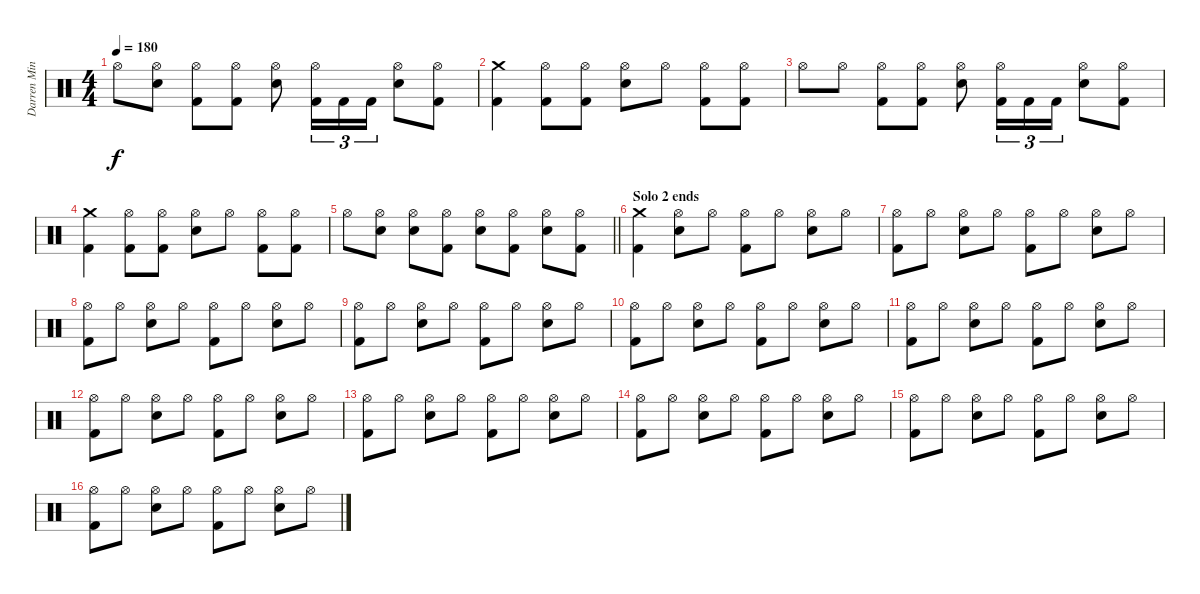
\track ("Darren Minter" "Darren Min") {instrument percussion}
\staff {score}
\articulation defaults
\ts (4 4)
\tempo 180
\clef neutral
\ks c "Hi-Hat (open)".8{dy f}
("Hi-Hat (open)" "Electric Snare (hit)").8 ("Hi-Hat (open)" "Kick (hit) 2").8 ("Hi-Hat (open)" "Kick (hit) 2").8 ("Hi-Hat (open)" "Electric Snare (hit)").8 ("Hi-Hat (open)" "Kick (hit) 2").16{tu (3 2)} "Kick (hit) 2".16{tu (3 2)} "Kick (hit) 2".16{tu (3 2)} ("Hi-Hat (open)" "Electric Snare (hit)").8 ("Hi-Hat (open)" "Kick (hit) 2").8 |
("Crash medium (hit)" "Kick (hit) 2").4 ("Hi-Hat (open)" "Kick (hit) 2").8 ("Hi-Hat (open)" "Kick (hit) 2").8 ("Hi-Hat (open)" "Electric Snare (hit)").8 "Hi-Hat (open)".8 ("Hi-Hat (open)" "Kick (hit) 2").8 ("Hi-Hat (open)" "Kick (hit) 2").8 |
"Hi-Hat (open)".8 "Hi-Hat (open)".8 ("Hi-Hat (open)" "Kick (hit) 2").8 ("Hi-Hat (open)" "Kick (hit) 2").8 ("Hi-Hat (open)" "Electric Snare (hit)").8 ("Hi-Hat (open)" "Kick (hit) 2").16{tu (3 2)} "Kick (hit) 2".16{tu (3 2)} "Kick (hit) 2".16{tu (3 2)} ("Hi-Hat (open)" "Electric Snare (hit)").8 ("Hi-Hat (open)" "Kick (hit) 2").8 |
("Crash medium (hit)" "Kick (hit) 2").4 ("Hi-Hat (open)" "Kick (hit) 2").8 ("Hi-Hat (open)" "Kick (hit) 2").8 ("Hi-Hat (open)" "Electric Snare (hit)").8 "Hi-Hat (open)".8 ("Hi-Hat (open)" "Kick (hit) 2").8 ("Hi-Hat (open)" "Kick (hit) 2").8 |
\barLineRight lightlight "Hi-Hat (open)".8
("Hi-Hat (open)" "Electric Snare (hit)").8 ("Hi-Hat (open)" "Electric Snare (hit)").8 ("Hi-Hat (open)" "Kick (hit) 2").8 ("Hi-Hat (open)" "Electric Snare (hit)").8 ("Hi-Hat (open)" "Kick (hit) 2").8 ("Hi-Hat (open)" "Electric Snare (hit)").8 ("Hi-Hat (open)" "Kick (hit) 2").8 |
\section ("" "Solo 2 ends")
("Crash medium (hit)" "Kick (hit) 2").4 ("Hi-Hat (open)" "Electric Snare (hit)").8 "Hi-Hat (open)".8 ("Hi-Hat (open)" "Kick (hit) 2").8 "Hi-Hat (open)".8 ("Hi-Hat (open)" "Electric Snare (hit)").8 "Hi-Hat (open)".8 |
("Hi-Hat (open)" "Kick (hit) 2").8 "Hi-Hat (open)".8 ("Hi-Hat (open)" "Electric Snare (hit)").8 "Hi-Hat (open)".8 ("Hi-Hat (open)" "Kick (hit) 2").8 "Hi-Hat (open)".8 ("Hi-Hat (open)" "Electric Snare (hit)").8 "Hi-Hat (open)".8 |
("Hi-Hat (open)" "Kick (hit) 2").8 "Hi-Hat (open)".8 ("Hi-Hat (open)" "Electric Snare (hit)").8 "Hi-Hat (open)".8 ("Hi-Hat (open)" "Kick (hit) 2").8 "Hi-Hat (open)".8 ("Hi-Hat (open)" "Electric Snare (hit)").8 "Hi-Hat (open)".8 |
("Hi-Hat (open)" "Kick (hit) 2").8 "Hi-Hat (open)".8 ("Hi-Hat (open)" "Electric Snare (hit)").8 "Hi-Hat (open)".8 ("Hi-Hat (open)" "Kick (hit) 2").8 "Hi-Hat (open)".8 ("Hi-Hat (open)" "Electric Snare (hit)").8 "Hi-Hat (open)".8 |
("Hi-Hat (open)" "Kick (hit) 2").8 "Hi-Hat (open)".8 ("Hi-Hat (open)" "Electric Snare (hit)").8 "Hi-Hat (open)".8 ("Hi-Hat (open)" "Kick (hit) 2").8 "Hi-Hat (open)".8 ("Hi-Hat (open)" "Electric Snare (hit)").8 "Hi-Hat (open)".8 |
("Hi-Hat (open)" "Kick (hit) 2").8 "Hi-Hat (open)".8 ("Hi-Hat (open)" "Electric Snare (hit)").8 "Hi-Hat (open)".8 ("Hi-Hat (open)" "Kick (hit) 2").8 "Hi-Hat (open)".8 ("Hi-Hat (open)" "Electric Snare (hit)").8 "Hi-Hat (open)".8 |
("Hi-Hat (open)" "Kick (hit) 2").8 "Hi-Hat (open)".8 ("Hi-Hat (open)" "Electric Snare (hit)").8 "Hi-Hat (open)".8 ("Hi-Hat (open)" "Kick (hit) 2").8 "Hi-Hat (open)".8 ("Hi-Hat (open)" "Electric Snare (hit)").8 "Hi-Hat (open)".8 |
("Hi-Hat (open)" "Kick (hit) 2").8 "Hi-Hat (open)".8 ("Hi-Hat (open)" "Electric Snare (hit)").8 "Hi-Hat (open)".8 ("Hi-Hat (open)" "Kick (hit) 2").8 "Hi-Hat (open)".8 ("Hi-Hat (open)" "Electric Snare (hit)").8 "Hi-Hat (open)".8 |
("Hi-Hat (open)" "Kick (hit) 2").8 "Hi-Hat (open)".8 ("Hi-Hat (open)" "Electric Snare (hit)").8 "Hi-Hat (open)".8 ("Hi-Hat (open)" "Kick (hit) 2").8 "Hi-Hat (open)".8 ("Hi-Hat (open)" "Electric Snare (hit)").8 "Hi-Hat (open)".8 |
("Hi-Hat (open)" "Kick (hit) 2").8 "Hi-Hat (open)".8 ("Hi-Hat (open)" "Electric Snare (hit)").8 "Hi-Hat (open)".8 ("Hi-Hat (open)" "Kick (hit) 2").8 "Hi-Hat (open)".8 ("Hi-Hat (open)" "Electric Snare (hit)").8 "Hi-Hat (open)".8 |
("Hi-Hat (open)" "Kick (hit) 2").8 "Hi-Hat (open)".8 ("Hi-Hat (open)" "Electric Snare (hit)").8 "Hi-Hat (open)".8 ("Hi-Hat (open)" "Kick (hit) 2").8 "Hi-Hat (open)".8 ("Hi-Hat (open)" "Electric Snare (hit)").8 "Hi-Hat (open)".8
